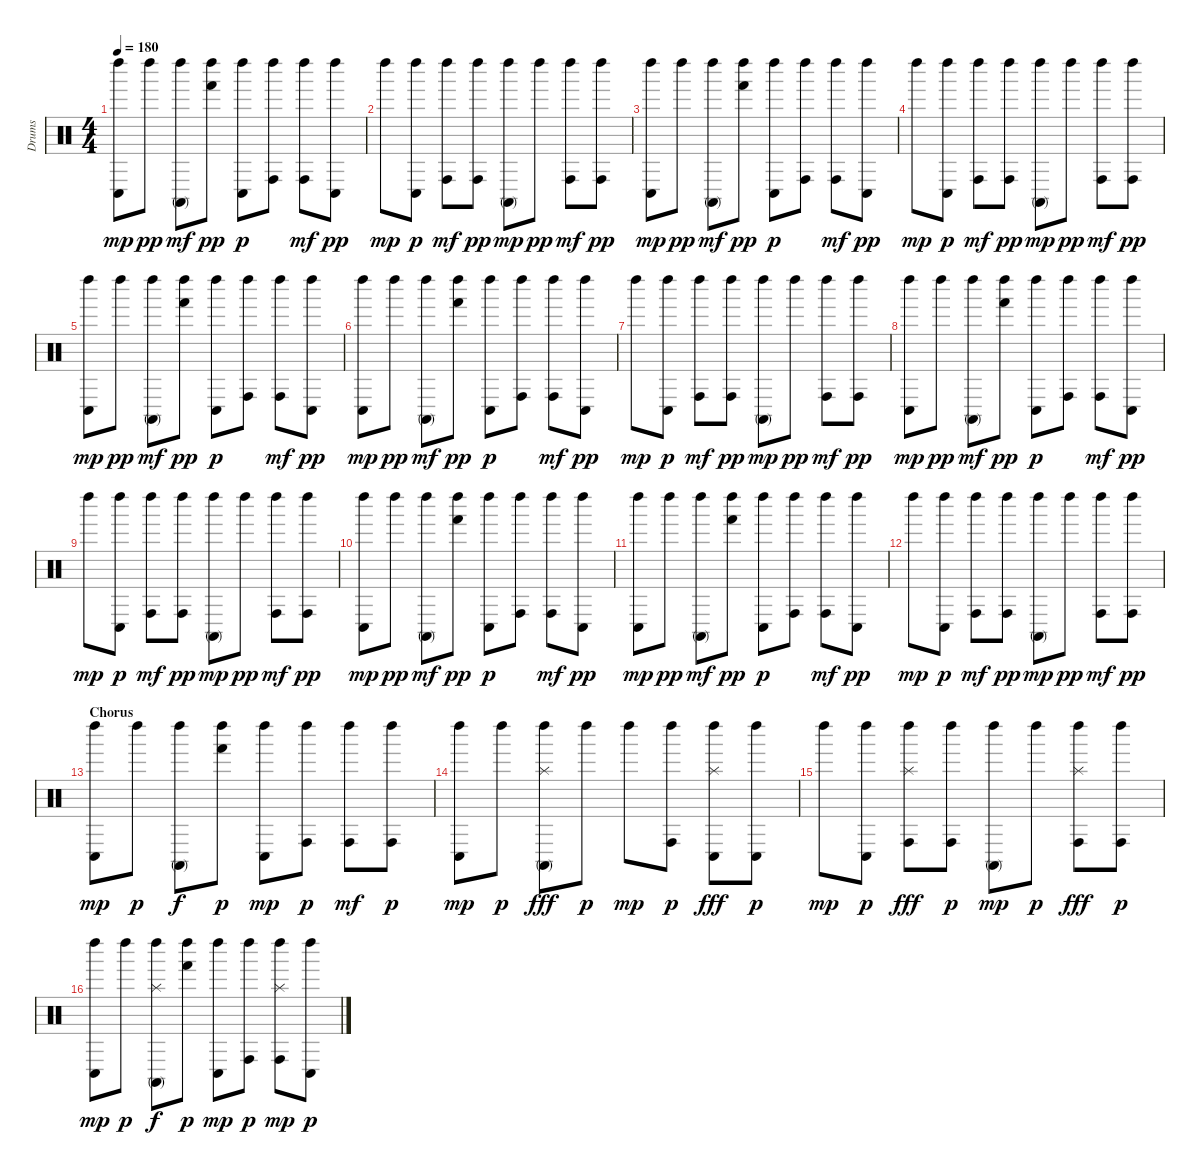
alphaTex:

\track ("Drums" "Drums") {instrument percussion}
\staff {score}
\articulation defaults
\ts (4 4)
\tempo 180
\clef neutral
\ks c
("Left Maraca (hit)" "Conga low (hit)").8{dy mp} "Left Maraca (hit)".8{dy pp} ("Left Maraca (hit)" "Conga high (mute)").8{dy mf} ("Left Maraca (hit)" "Hand (hit)").8{dy pp} ("Left Maraca (hit)" "Conga low (hit)").8{dy p} ("Left Maraca (hit)" "Conga high (hit)").8 ("Left Maraca (hit)" "Conga high (hit)").8{dy mf} ("Left Maraca (hit)" "Conga low (hit)").8{dy pp} |
"Left Maraca (hit)".8{dy mp} ("Left Maraca (hit)" "Conga low (hit)").8{dy p} ("Left Maraca (hit)" "Conga high (hit)").8{dy mf} ("Left Maraca (hit)" "Conga high (hit)").8{dy pp} ("Left Maraca (hit)" "Conga high (mute)").8{dy mp} "Left Maraca (hit)".8{dy pp} ("Left Maraca (hit)" "Conga high (hit)").8{dy mf} ("Left Maraca (hit)" "Conga high (hit)").8{dy pp} |
("Left Maraca (hit)" "Conga low (hit)").8{dy mp} "Left Maraca (hit)".8{dy pp} ("Left Maraca (hit)" "Conga high (mute)").8{dy mf} ("Left Maraca (hit)" "Hand (hit)").8{dy pp} ("Left Maraca (hit)" "Conga low (hit)").8{dy p} ("Left Maraca (hit)" "Conga high (hit)").8 ("Left Maraca (hit)" "Conga high (hit)").8{dy mf} ("Left Maraca (hit)" "Conga low (hit)").8{dy pp} |
"Left Maraca (hit)".8{dy mp} ("Left Maraca (hit)" "Conga low (hit)").8{dy p} ("Left Maraca (hit)" "Conga high (hit)").8{dy mf} ("Left Maraca (hit)" "Conga high (hit)").8{dy pp} ("Left Maraca (hit)" "Conga high (mute)").8{dy mp} "Left Maraca (hit)".8{dy pp} ("Left Maraca (hit)" "Conga high (hit)").8{dy mf} ("Left Maraca (hit)" "Conga high (hit)").8{dy pp} |
("Left Maraca (hit)" "Conga low (hit)").8{dy mp} "Left Maraca (hit)".8{dy pp} ("Left Maraca (hit)" "Conga high (mute)").8{dy mf} ("Left Maraca (hit)" "Hand (hit)").8{dy pp} ("Left Maraca (hit)" "Conga low (hit)").8{dy p} ("Left Maraca (hit)" "Conga high (hit)").8 ("Left Maraca (hit)" "Conga high (hit)").8{dy mf} ("Left Maraca (hit)" "Conga low (hit)").8{dy pp} |
("Left Maraca (hit)" "Conga low (hit)").8{dy mp} "Left Maraca (hit)".8{dy pp} ("Left Maraca (hit)" "Conga high (mute)").8{dy mf} ("Left Maraca (hit)" "Hand (hit)").8{dy pp} ("Left Maraca (hit)" "Conga low (hit)").8{dy p} ("Left Maraca (hit)" "Conga high (hit)").8 ("Left Maraca (hit)" "Conga high (hit)").8{dy mf} ("Left Maraca (hit)" "Conga low (hit)").8{dy pp} |
"Left Maraca (hit)".8{dy mp} ("Left Maraca (hit)" "Conga low (hit)").8{dy p} ("Left Maraca (hit)" "Conga high (hit)").8{dy mf} ("Left Maraca (hit)" "Conga high (hit)").8{dy pp} ("Left Maraca (hit)" "Conga high (mute)").8{dy mp} "Left Maraca (hit)".8{dy pp} ("Left Maraca (hit)" "Conga high (hit)").8{dy mf} ("Left Maraca (hit)" "Conga high (hit)").8{dy pp} |
("Left Maraca (hit)" "Conga low (hit)").8{dy mp} "Left Maraca (hit)".8{dy pp} ("Left Maraca (hit)" "Conga high (mute)").8{dy mf} ("Left Maraca (hit)" "Hand (hit)").8{dy pp} ("Left Maraca (hit)" "Conga low (hit)").8{dy p} ("Left Maraca (hit)" "Conga high (hit)").8 ("Left Maraca (hit)" "Conga high (hit)").8{dy mf} ("Left Maraca (hit)" "Conga low (hit)").8{dy pp} |
"Left Maraca (hit)".8{dy mp} ("Left Maraca (hit)" "Conga low (hit)").8{dy p} ("Left Maraca (hit)" "Conga high (hit)").8{dy mf} ("Left Maraca (hit)" "Conga high (hit)").8{dy pp} ("Left Maraca (hit)" "Conga high (mute)").8{dy mp} "Left Maraca (hit)".8{dy pp} ("Left Maraca (hit)" "Conga high (hit)").8{dy mf} ("Left Maraca (hit)" "Conga high (hit)").8{dy pp} |
("Left Maraca (hit)" "Conga low (hit)").8{dy mp} "Left Maraca (hit)".8{dy pp} ("Left Maraca (hit)" "Conga high (mute)").8{dy mf} ("Left Maraca (hit)" "Hand (hit)").8{dy pp} ("Left Maraca (hit)" "Conga low (hit)").8{dy p} ("Left Maraca (hit)" "Conga high (hit)").8 ("Left Maraca (hit)" "Conga high (hit)").8{dy mf} ("Left Maraca (hit)" "Conga low (hit)").8{dy pp} |
("Left Maraca (hit)" "Conga low (hit)").8{dy mp} "Left Maraca (hit)".8{dy pp} ("Left Maraca (hit)" "Conga high (mute)").8{dy mf} ("Left Maraca (hit)" "Hand (hit)").8{dy pp} ("Left Maraca (hit)" "Conga low (hit)").8{dy p} ("Left Maraca (hit)" "Conga high (hit)").8 ("Left Maraca (hit)" "Conga high (hit)").8{dy mf} ("Left Maraca (hit)" "Conga low (hit)").8{dy pp} |
"Left Maraca (hit)".8{dy mp} ("Left Maraca (hit)" "Conga low (hit)").8{dy p} ("Left Maraca (hit)" "Conga high (hit)").8{dy mf} ("Left Maraca (hit)" "Conga high (hit)").8{dy pp} ("Left Maraca (hit)" "Conga high (mute)").8{dy mp} "Left Maraca (hit)".8{dy pp} ("Left Maraca (hit)" "Conga high (hit)").8{dy mf} ("Left Maraca (hit)" "Conga high (hit)").8{dy pp} |
\section ("" "Chorus")
("Left Maraca (hit)" "Conga low (hit)").8{dy mp} "Left Maraca (hit)".8{dy p} ("Left Maraca (hit)" "Conga high (mute)").8{dy f} ("Left Maraca (hit)" "Hand (hit)").8{dy p} ("Left Maraca (hit)" "Conga low (hit)").8{dy mp} ("Left Maraca (hit)" "Conga high (hit)").8{dy p} ("Left Maraca (hit)" "Conga high (hit)").8{dy mf} ("Left Maraca (hit)" "Conga high (hit)").8{dy p} |
("Left Maraca (hit)" "Conga low (hit)").8{dy mp} "Left Maraca (hit)".8{dy p} ("Left Maraca (hit)" "Conga high (mute)" "Splash (hit)").8{dy fff} "Left Maraca (hit)".8{dy p} "Left Maraca (hit)".8{dy mp} ("Left Maraca (hit)" "Conga high (hit)").8{dy p} ("Left Maraca (hit)" "Conga low (hit)" "Splash (hit)").8{dy fff} ("Left Maraca (hit)" "Conga low (hit)").8{dy p} |
"Left Maraca (hit)".8{dy mp} ("Left Maraca (hit)" "Conga low (hit)").8{dy p} ("Left Maraca (hit)" "Conga high (hit)" "Splash (hit)").8{dy fff} ("Left Maraca (hit)" "Conga high (hit)").8{dy p} ("Left Maraca (hit)" "Conga high (mute)").8{dy mp} "Left Maraca (hit)".8{dy p} ("Left Maraca (hit)" "Conga high (hit)" "Splash (hit)").8{dy fff} ("Left Maraca (hit)" "Conga high (hit)").8{dy p} |
("Left Maraca (hit)" "Conga low (hit)").8{dy mp} "Left Maraca (hit)".8{dy p} ("Left Maraca (hit)" "Conga high (mute)" "Splash (hit)").8{dy f} ("Left Maraca (hit)" "Hand (hit)").8{dy p} ("Left Maraca (hit)" "Conga low (hit)").8{dy mp} ("Left Maraca (hit)" "Conga high (hit)").8{dy p} ("Left Maraca (hit)" "Conga high (hit)" "Splash (hit)").8{dy mp} ("Left Maraca (hit)" "Conga low (hit)").8{dy p}
